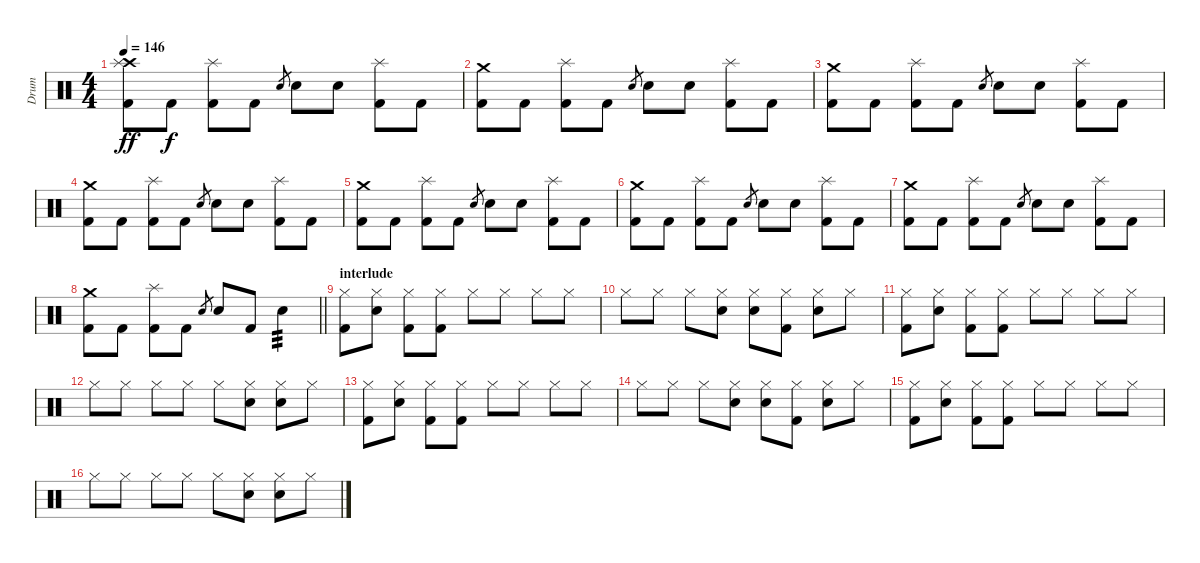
\track ("Drum" "Drum") {instrument percussion}
\staff {score}
\articulation defaults
\ts (4 4)
\tempo 146
\clef neutral
\ks c
("Crash high (hit)" "Splash (hit)" "Kick (hit) 2").8{dy ff} "Kick (hit) 2".8{dy f} ("Splash (hit)" "Kick (hit) 2").8 "Kick (hit) 2".8 "Electric Snare (hit)".8{gr} "Electric Snare (hit)".8 "Electric Snare (hit)".8 ("Splash (hit)" "Kick (hit) 2").8 "Kick (hit) 2".8 |
("Crash medium (hit)" "Kick (hit) 2").8 "Kick (hit) 2".8 ("Splash (hit)" "Kick (hit) 2").8 "Kick (hit) 2".8 "Electric Snare (hit)".8{gr} "Electric Snare (hit)".8 "Electric Snare (hit)".8 ("Splash (hit)" "Kick (hit) 2").8 "Kick (hit) 2".8 |
("Crash medium (hit)" "Kick (hit) 2").8 "Kick (hit) 2".8 ("Splash (hit)" "Kick (hit) 2").8 "Kick (hit) 2".8 "Electric Snare (hit)".8{gr} "Electric Snare (hit)".8 "Electric Snare (hit)".8 ("Splash (hit)" "Kick (hit) 2").8 "Kick (hit) 2".8 |
("Crash medium (hit)" "Kick (hit) 2").8 "Kick (hit) 2".8 ("Splash (hit)" "Kick (hit) 2").8 "Kick (hit) 2".8 "Electric Snare (hit)".8{gr} "Electric Snare (hit)".8 "Electric Snare (hit)".8 ("Splash (hit)" "Kick (hit) 2").8 "Kick (hit) 2".8 |
("Crash medium (hit)" "Kick (hit) 2").8 "Kick (hit) 2".8 ("Splash (hit)" "Kick (hit) 2").8 "Kick (hit) 2".8 "Electric Snare (hit)".8{gr} "Electric Snare (hit)".8 "Electric Snare (hit)".8 ("Splash (hit)" "Kick (hit) 2").8 "Kick (hit) 2".8 |
("Crash medium (hit)" "Kick (hit) 2").8 "Kick (hit) 2".8 ("Splash (hit)" "Kick (hit) 2").8 "Kick (hit) 2".8 "Electric Snare (hit)".8{gr} "Electric Snare (hit)".8 "Electric Snare (hit)".8 ("Splash (hit)" "Kick (hit) 2").8 "Kick (hit) 2".8 |
("Crash medium (hit)" "Kick (hit) 2").8 "Kick (hit) 2".8 ("Splash (hit)" "Kick (hit) 2").8 "Kick (hit) 2".8 "Electric Snare (hit)".8{gr} "Electric Snare (hit)".8 "Electric Snare (hit)".8 ("Splash (hit)" "Kick (hit) 2").8 "Kick (hit) 2".8 |
\barLineRight lightlight
("Crash medium (hit)" "Kick (hit) 2").8 "Kick (hit) 2".8 ("Splash (hit)" "Kick (hit) 2").8 "Kick (hit) 2".8 "Electric Snare (hit)".8{gr} "Electric Snare (hit)".8 "Kick (hit) 2".8 "Electric Snare (hit)".4{tp 3} |
\section ("" "interlude")
("Hi-Hat (closed)" "Kick (hit) 2").8 ("Hi-Hat (closed)" "Electric Snare (hit)").8 ("Hi-Hat (closed)" "Kick (hit) 2").8 ("Hi-Hat (closed)" "Kick (hit) 2").8 "Hi-Hat (closed)".8 "Hi-Hat (closed)".8 "Hi-Hat (closed)".8 "Hi-Hat (closed)".8 |
"Hi-Hat (closed)".8 "Hi-Hat (closed)".8 "Hi-Hat (closed)".8 ("Hi-Hat (closed)" "Electric Snare (hit)").8 ("Hi-Hat (closed)" "Electric Snare (hit)").8 ("Hi-Hat (closed)" "Kick (hit) 2").8 ("Hi-Hat (closed)" "Electric Snare (hit)").8 "Hi-Hat (closed)".8 |
("Hi-Hat (closed)" "Kick (hit) 2").8 ("Hi-Hat (closed)" "Electric Snare (hit)").8 ("Hi-Hat (closed)" "Kick (hit) 2").8 ("Hi-Hat (closed)" "Kick (hit) 2").8 "Hi-Hat (closed)".8 "Hi-Hat (closed)".8 "Hi-Hat (closed)".8 "Hi-Hat (closed)".8 |
"Hi-Hat (closed)".8 "Hi-Hat (closed)".8 "Hi-Hat (closed)".8 "Hi-Hat (closed)".8 "Hi-Hat (closed)".8 ("Hi-Hat (closed)" "Electric Snare (hit)").8 ("Hi-Hat (closed)" "Electric Snare (hit)").8 "Hi-Hat (closed)".8 |
("Hi-Hat (closed)" "Kick (hit) 2").8 ("Hi-Hat (closed)" "Electric Snare (hit)").8 ("Hi-Hat (closed)" "Kick (hit) 2").8 ("Hi-Hat (closed)" "Kick (hit) 2").8 "Hi-Hat (closed)".8 "Hi-Hat (closed)".8 "Hi-Hat (closed)".8 "Hi-Hat (closed)".8 |
"Hi-Hat (closed)".8 "Hi-Hat (closed)".8 "Hi-Hat (closed)".8 ("Hi-Hat (closed)" "Electric Snare (hit)").8 ("Hi-Hat (closed)" "Electric Snare (hit)").8 ("Hi-Hat (closed)" "Kick (hit) 2").8 ("Hi-Hat (closed)" "Electric Snare (hit)").8 "Hi-Hat (closed)".8 |
("Hi-Hat (closed)" "Kick (hit) 2").8 ("Hi-Hat (closed)" "Electric Snare (hit)").8 ("Hi-Hat (closed)" "Kick (hit) 2").8 ("Hi-Hat (closed)" "Kick (hit) 2").8 "Hi-Hat (closed)".8 "Hi-Hat (closed)".8 "Hi-Hat (closed)".8 "Hi-Hat (closed)".8 |
"Hi-Hat (closed)".8 "Hi-Hat (closed)".8 "Hi-Hat (closed)".8 "Hi-Hat (closed)".8 "Hi-Hat (closed)".8 ("Hi-Hat (closed)" "Electric Snare (hit)").8 ("Hi-Hat (closed)" "Electric Snare (hit)").8 "Hi-Hat (closed)".8
